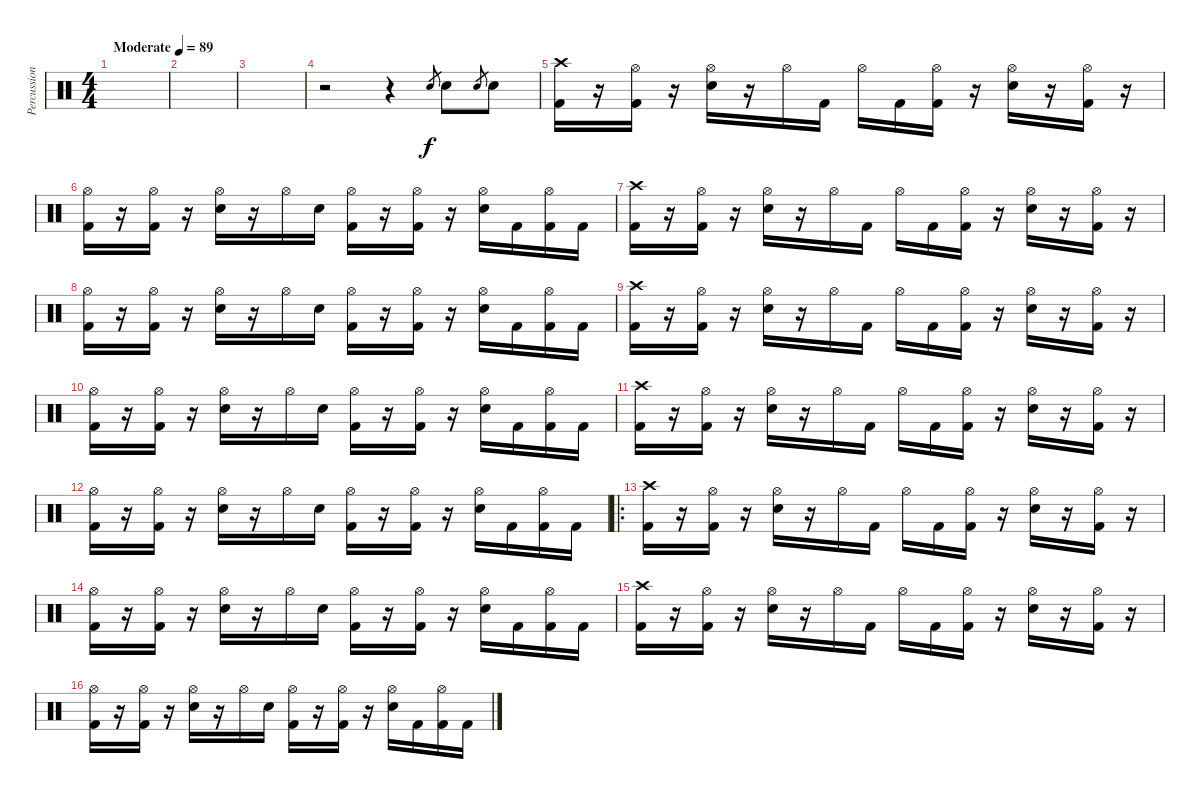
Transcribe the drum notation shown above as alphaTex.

\track ("Percussion" "Percussion") {instrument percussion}
\staff {score}
\articulation defaults
\ts (4 4)
\tempo (89 "Moderate")
\clef neutral
\ks c
|
|
|
r.2 r.4 "Electric Snare (hit)".8{gr} "Electric Snare (hit)".8 "Electric Snare (hit)".8{gr} "Electric Snare (hit)".8 |
("Crash high (hit)" "Kick (hit) 2").16 r.16 ("Hi-Hat (open)" "Kick (hit) 2").16 r.16 ("Hi-Hat (open)" "Electric Snare (hit)").16 r.16 "Hi-Hat (open)".16 "Kick (hit) 2".16 "Hi-Hat (open)".16 "Kick (hit) 2".16 ("Hi-Hat (open)" "Kick (hit) 2").16 r.16 ("Hi-Hat (open)" "Electric Snare (hit)").16 r.16 ("Hi-Hat (open)" "Kick (hit) 2").16 r.16 |
("Hi-Hat (open)" "Kick (hit) 2").16 r.16 ("Hi-Hat (open)" "Kick (hit) 2").16 r.16 ("Hi-Hat (open)" "Electric Snare (hit)").16 r.16 "Hi-Hat (open)".16 "Electric Snare (hit)".16 ("Hi-Hat (open)" "Kick (hit) 2").16 r.16 ("Hi-Hat (open)" "Kick (hit) 2").16 r.16 ("Hi-Hat (open)" "Electric Snare (hit)").16 "Kick (hit) 2".16 ("Hi-Hat (open)" "Kick (hit) 2").16 "Kick (hit) 2".16 |
("Crash high (hit)" "Kick (hit) 2").16 r.16 ("Hi-Hat (open)" "Kick (hit) 2").16 r.16 ("Hi-Hat (open)" "Electric Snare (hit)").16 r.16 "Hi-Hat (open)".16 "Kick (hit) 2".16 "Hi-Hat (open)".16 "Kick (hit) 2".16 ("Hi-Hat (open)" "Kick (hit) 2").16 r.16 ("Hi-Hat (open)" "Electric Snare (hit)").16 r.16 ("Hi-Hat (open)" "Kick (hit) 2").16 r.16 |
("Hi-Hat (open)" "Kick (hit) 2").16 r.16 ("Hi-Hat (open)" "Kick (hit) 2").16 r.16 ("Hi-Hat (open)" "Electric Snare (hit)").16 r.16 "Hi-Hat (open)".16 "Electric Snare (hit)".16 ("Hi-Hat (open)" "Kick (hit) 2").16 r.16 ("Hi-Hat (open)" "Kick (hit) 2").16 r.16 ("Hi-Hat (open)" "Electric Snare (hit)").16 "Kick (hit) 2".16 ("Hi-Hat (open)" "Kick (hit) 2").16 "Kick (hit) 2".16 |
("Crash high (hit)" "Kick (hit) 2").16 r.16 ("Hi-Hat (open)" "Kick (hit) 2").16 r.16 ("Hi-Hat (open)" "Electric Snare (hit)").16 r.16 "Hi-Hat (open)".16 "Kick (hit) 2".16 "Hi-Hat (open)".16 "Kick (hit) 2".16 ("Hi-Hat (open)" "Kick (hit) 2").16 r.16 ("Hi-Hat (open)" "Electric Snare (hit)").16 r.16 ("Hi-Hat (open)" "Kick (hit) 2").16 r.16 |
("Hi-Hat (open)" "Kick (hit) 2").16 r.16 ("Hi-Hat (open)" "Kick (hit) 2").16 r.16 ("Hi-Hat (open)" "Electric Snare (hit)").16 r.16 "Hi-Hat (open)".16 "Electric Snare (hit)".16 ("Hi-Hat (open)" "Kick (hit) 2").16 r.16 ("Hi-Hat (open)" "Kick (hit) 2").16 r.16 ("Hi-Hat (open)" "Electric Snare (hit)").16 "Kick (hit) 2".16 ("Hi-Hat (open)" "Kick (hit) 2").16 "Kick (hit) 2".16 |
("Crash high (hit)" "Kick (hit) 2").16 r.16 ("Hi-Hat (open)" "Kick (hit) 2").16 r.16 ("Hi-Hat (open)" "Electric Snare (hit)").16 r.16 "Hi-Hat (open)".16 "Kick (hit) 2".16 "Hi-Hat (open)".16 "Kick (hit) 2".16 ("Hi-Hat (open)" "Kick (hit) 2").16 r.16 ("Hi-Hat (open)" "Electric Snare (hit)").16 r.16 ("Hi-Hat (open)" "Kick (hit) 2").16 r.16 |
("Hi-Hat (open)" "Kick (hit) 2").16 r.16 ("Hi-Hat (open)" "Kick (hit) 2").16 r.16 ("Hi-Hat (open)" "Electric Snare (hit)").16 r.16 "Hi-Hat (open)".16 "Electric Snare (hit)".16 ("Hi-Hat (open)" "Kick (hit) 2").16 r.16 ("Hi-Hat (open)" "Kick (hit) 2").16 r.16 ("Hi-Hat (open)" "Electric Snare (hit)").16 "Kick (hit) 2".16 ("Hi-Hat (open)" "Kick (hit) 2").16 "Kick (hit) 2".16 |
\ro
("Crash high (hit)" "Kick (hit) 2").16 r.16 ("Hi-Hat (open)" "Kick (hit) 2").16 r.16 ("Hi-Hat (open)" "Electric Snare (hit)").16 r.16 "Hi-Hat (open)".16 "Kick (hit) 2".16 "Hi-Hat (open)".16 "Kick (hit) 2".16 ("Hi-Hat (open)" "Kick (hit) 2").16 r.16 ("Hi-Hat (open)" "Electric Snare (hit)").16 r.16 ("Hi-Hat (open)" "Kick (hit) 2").16 r.16 |
("Hi-Hat (open)" "Kick (hit) 2").16 r.16 ("Hi-Hat (open)" "Kick (hit) 2").16 r.16 ("Hi-Hat (open)" "Electric Snare (hit)").16 r.16 "Hi-Hat (open)".16 "Electric Snare (hit)".16 ("Hi-Hat (open)" "Kick (hit) 2").16 r.16 ("Hi-Hat (open)" "Kick (hit) 2").16 r.16 ("Hi-Hat (open)" "Electric Snare (hit)").16 "Kick (hit) 2".16 ("Hi-Hat (open)" "Kick (hit) 2").16 "Kick (hit) 2".16 |
("Crash high (hit)" "Kick (hit) 2").16 r.16 ("Hi-Hat (open)" "Kick (hit) 2").16 r.16 ("Hi-Hat (open)" "Electric Snare (hit)").16 r.16 "Hi-Hat (open)".16 "Kick (hit) 2".16 "Hi-Hat (open)".16 "Kick (hit) 2".16 ("Hi-Hat (open)" "Kick (hit) 2").16 r.16 ("Hi-Hat (open)" "Electric Snare (hit)").16 r.16 ("Hi-Hat (open)" "Kick (hit) 2").16 r.16 |
("Hi-Hat (open)" "Kick (hit) 2").16 r.16 ("Hi-Hat (open)" "Kick (hit) 2").16 r.16 ("Hi-Hat (open)" "Electric Snare (hit)").16 r.16 "Hi-Hat (open)".16 "Electric Snare (hit)".16 ("Hi-Hat (open)" "Kick (hit) 2").16 r.16 ("Hi-Hat (open)" "Kick (hit) 2").16 r.16 ("Hi-Hat (open)" "Electric Snare (hit)").16 "Kick (hit) 2".16 ("Hi-Hat (open)" "Kick (hit) 2").16 "Kick (hit) 2".16
